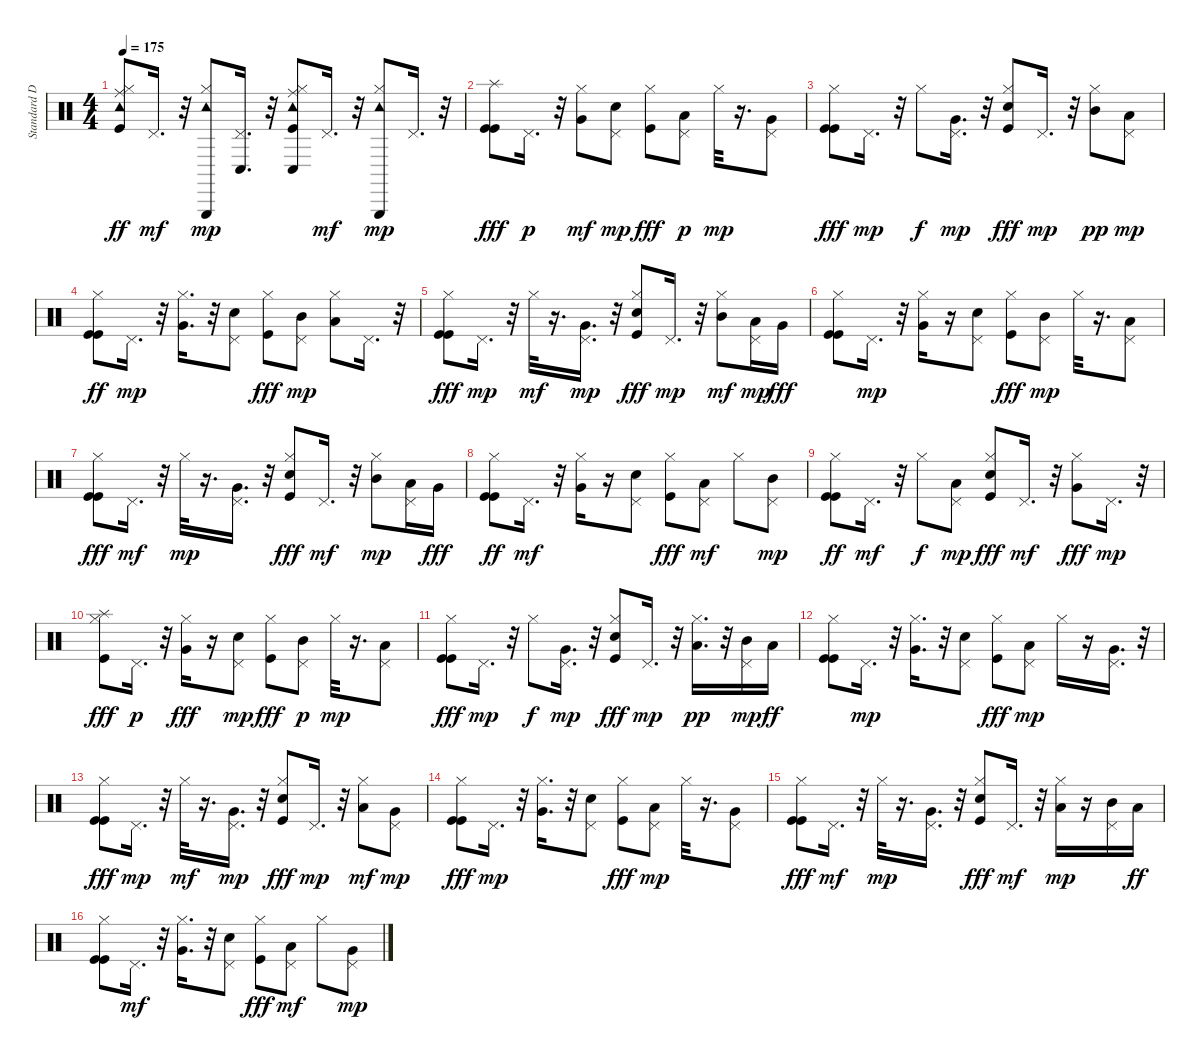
\track ("Standard Drums" "Standard D") {instrument percussion}
\staff {score}
\articulation defaults
\ts (4 4)
\tempo 175
\clef neutral
\ks c
("Kick (hit)" "Hi-Hat (closed)" "Tambourine (hit)" "Ride (middle)").8{dy ff} "Pedal Hi-Hat (hit)".16{d dy mf} r.32 ("Hi-Hat (closed)" "Triangle (hit)" "Tambourine (hit)").8{dy mp} ("Pedal Hi-Hat (hit)" "Conga low (hit)").16{d} r.32 ("Kick (hit)" "Hi-Hat (closed)" "Tambourine (hit)" "Conga low (hit)" "Ride (middle)").8 "Pedal Hi-Hat (hit)".16{d dy mf} r.32 ("Hi-Hat (closed)" "Triangle (hit)" "Tambourine (hit)").8{dy mp} "Pedal Hi-Hat (hit)".16{d} r.32 |
("Kick (hit)" "Kick (hit)" "Splash (hit)").8{dy fff} "Pedal Hi-Hat (hit)".16{d dy p} r.32 ("Very Low Tom (hit)" "Hi-Hat (closed)").8{dy mf} ("Snare (hit) 2" "Pedal Hi-Hat (hit)").8{dy mp} ("Kick (hit)" "Hi-Hat (closed)").8{dy fff} ("Low Tom (hit)" "Pedal Hi-Hat (hit)").8{dy p} "Hi-Hat (closed)".32{dy mp} r.16{d} ("Very Low Tom (hit)" "Pedal Hi-Hat (hit)").8 |
("Kick (hit)" "Kick (hit)" "Hi-Hat (closed)").8{dy fff} "Pedal Hi-Hat (hit)".16{d dy mp} r.32 "Hi-Hat (closed)".8{dy f} ("Very Low Tom (hit)" "Pedal Hi-Hat (hit)").16{d dy mp} r.32 ("Snare (hit) 2" "Kick (hit)" "Hi-Hat (closed)").8{dy fff} "Pedal Hi-Hat (hit)".16{d dy mp} r.32 ("Mid Tom (hit)" "Hi-Hat (closed)").8{dy pp} ("Low Tom (hit)" "Pedal Hi-Hat (hit)").8{dy mp} |
("Kick (hit)" "Kick (hit)" "Hi-Hat (closed)").8{dy ff} "Pedal Hi-Hat (hit)".16{d dy mp} r.32 ("Very Low Tom (hit)" "Hi-Hat (closed)").16{d} r.32 ("Snare (hit) 2" "Pedal Hi-Hat (hit)").8 ("Kick (hit)" "Hi-Hat (closed)").8{dy fff} ("Mid Tom (hit)" "Pedal Hi-Hat (hit)").8{dy mp} ("Low Tom (hit)" "Hi-Hat (closed)").8 "Pedal Hi-Hat (hit)".16{d} r.32 |
("Kick (hit)" "Kick (hit)" "Hi-Hat (closed)").8{dy fff} "Pedal Hi-Hat (hit)".16{d dy mp} r.32 "Hi-Hat (closed)".32{dy mf} r.16{d} ("Very Low Tom (hit)" "Pedal Hi-Hat (hit)").16{d dy mp} r.32 ("Snare (hit) 2" "Kick (hit)" "Hi-Hat (closed)").8{dy fff} "Pedal Hi-Hat (hit)".16{d dy mp} r.32 ("Mid Tom (hit)" "Hi-Hat (closed)").8{dy mf} ("Low Tom (hit)" "Pedal Hi-Hat (hit)").16{dy mp} "Very Low Tom (hit)".16{dy fff} |
("Kick (hit)" "Kick (hit)" "Hi-Hat (closed)").8 "Pedal Hi-Hat (hit)".16{d dy mp} r.32 ("Very Low Tom (hit)" "Hi-Hat (closed)").16 r.16 ("Snare (hit) 2" "Pedal Hi-Hat (hit)").8 ("Kick (hit)" "Hi-Hat (closed)").8{dy fff} ("Mid Tom (hit)" "Pedal Hi-Hat (hit)").8{dy mp} "Hi-Hat (closed)".32 r.16{d} ("Low Tom (hit)" "Pedal Hi-Hat (hit)").8 |
("Kick (hit)" "Kick (hit)" "Hi-Hat (closed)").8{dy fff} "Pedal Hi-Hat (hit)".16{d dy mf} r.32 "Hi-Hat (closed)".32{dy mp} r.16{d} ("Very Low Tom (hit)" "Pedal Hi-Hat (hit)").16{d} r.32 ("Snare (hit) 2" "Kick (hit)" "Hi-Hat (closed)").8{dy fff} "Pedal Hi-Hat (hit)".16{d dy mf} r.32 ("Mid Tom (hit)" "Hi-Hat (closed)").8{dy mp} ("Low Tom (hit)" "Pedal Hi-Hat (hit)").16 "Very Low Tom (hit)".16{dy fff} |
("Kick (hit)" "Kick (hit)" "Hi-Hat (closed)").8{dy ff} "Pedal Hi-Hat (hit)".16{d dy mf} r.32 ("Very Low Tom (hit)" "Hi-Hat (closed)").16 r.16 ("Snare (hit) 2" "Pedal Hi-Hat (hit)").8 ("Kick (hit)" "Hi-Hat (closed)").8{dy fff} ("Low Tom (hit)" "Pedal Hi-Hat (hit)").8{dy mf} "Hi-Hat (closed)".8 ("Mid Tom (hit)" "Pedal Hi-Hat (hit)").8{dy mp} |
("Kick (hit)" "Kick (hit)" "Hi-Hat (closed)").8{dy ff} "Pedal Hi-Hat (hit)".16{d dy mf} r.32 "Hi-Hat (closed)".8{dy f} ("Low Tom (hit)" "Pedal Hi-Hat (hit)").8{dy mp} ("Snare (hit) 2" "Kick (hit)" "Hi-Hat (closed)").8{dy fff} "Pedal Hi-Hat (hit)".16{d dy mf} r.32 ("Very Low Tom (hit)" "Hi-Hat (closed)").8{dy fff} "Pedal Hi-Hat (hit)".16{d dy mp} r.32 |
("Kick (hit)" "Splash (hit)" "Hi-Hat (closed)").8{dy fff} "Pedal Hi-Hat (hit)".16{d dy p} r.32 ("Very Low Tom (hit)" "Hi-Hat (closed)").16{dy fff} r.16 ("Snare (hit) 2" "Pedal Hi-Hat (hit)").8{dy mp} ("Kick (hit)" "Hi-Hat (closed)").8{dy fff} ("Mid Tom (hit)" "Pedal Hi-Hat (hit)").8{dy p} "Hi-Hat (closed)".32{dy mp} r.16{d} ("Low Tom (hit)" "Pedal Hi-Hat (hit)").8 |
("Kick (hit)" "Kick (hit)" "Hi-Hat (closed)").8{dy fff} "Pedal Hi-Hat (hit)".16{d dy mp} r.32 "Hi-Hat (closed)".8{dy f} ("Very Low Tom (hit)" "Pedal Hi-Hat (hit)").16{d dy mp} r.32 ("Snare (hit) 2" "Kick (hit)" "Hi-Hat (closed)").8{dy fff} "Pedal Hi-Hat (hit)".16{d dy mp} r.32 ("Low Tom (hit)" "Hi-Hat (closed)").16{d dy pp} r.32 ("Mid Tom (hit)" "Pedal Hi-Hat (hit)").16{dy mp} "Low Tom (hit)".16{dy ff} |
("Kick (hit)" "Kick (hit)" "Hi-Hat (closed)").8 "Pedal Hi-Hat (hit)".16{d dy mp} r.32 ("Very Low Tom (hit)" "Hi-Hat (closed)").16{d} r.32 ("Snare (hit) 2" "Pedal Hi-Hat (hit)").8 ("Kick (hit)" "Hi-Hat (closed)").8{dy fff} ("Low Tom (hit)" "Pedal Hi-Hat (hit)").8{dy mp} "Hi-Hat (closed)".16 r.16 ("Very Low Tom (hit)" "Pedal Hi-Hat (hit)").16{d} r.32 |
("Kick (hit)" "Kick (hit)" "Hi-Hat (closed)").8{dy fff} "Pedal Hi-Hat (hit)".16{d dy mp} r.32 "Hi-Hat (closed)".32{dy mf} r.16{d} ("Very Low Tom (hit)" "Pedal Hi-Hat (hit)").16{d dy mp} r.32 ("Snare (hit) 2" "Kick (hit)" "Hi-Hat (closed)").8{dy fff} "Pedal Hi-Hat (hit)".16{d dy mp} r.32 ("Low Tom (hit)" "Hi-Hat (closed)").8{dy mf} ("Very Low Tom (hit)" "Pedal Hi-Hat (hit)").8{dy mp} |
("Kick (hit)" "Kick (hit)" "Hi-Hat (closed)").8{dy fff} "Pedal Hi-Hat (hit)".16{d dy mp} r.32 ("Very Low Tom (hit)" "Hi-Hat (closed)").16{d} r.32 ("Snare (hit) 2" "Pedal Hi-Hat (hit)").8 ("Kick (hit)" "Hi-Hat (closed)").8{dy fff} ("Low Tom (hit)" "Pedal Hi-Hat (hit)").8{dy mp} "Hi-Hat (closed)".32 r.16{d} ("Very Low Tom (hit)" "Pedal Hi-Hat (hit)").8 |
("Kick (hit)" "Kick (hit)" "Hi-Hat (closed)").8{dy fff} "Pedal Hi-Hat (hit)".16{d dy mf} r.32 "Hi-Hat (closed)".32{dy mp} r.16{d} ("Very Low Tom (hit)" "Pedal Hi-Hat (hit)").16{d} r.32 ("Snare (hit) 2" "Kick (hit)" "Hi-Hat (closed)").8{dy fff} "Pedal Hi-Hat (hit)".16{d dy mf} r.32 ("Low Tom (hit)" "Hi-Hat (closed)").16{dy mp} r.16 ("Mid Tom (hit)" "Pedal Hi-Hat (hit)").16 "Low Tom (hit)".16{dy ff} |
("Kick (hit)" "Kick (hit)" "Hi-Hat (closed)").8 "Pedal Hi-Hat (hit)".16{d dy mf} r.32 ("Very Low Tom (hit)" "Hi-Hat (closed)").16{d} r.32 ("Snare (hit) 2" "Pedal Hi-Hat (hit)").8 ("Kick (hit)" "Hi-Hat (closed)").8{dy fff} ("Low Tom (hit)" "Pedal Hi-Hat (hit)").8{dy mf} "Hi-Hat (closed)".8 ("Very Low Tom (hit)" "Pedal Hi-Hat (hit)").8{dy mp}
